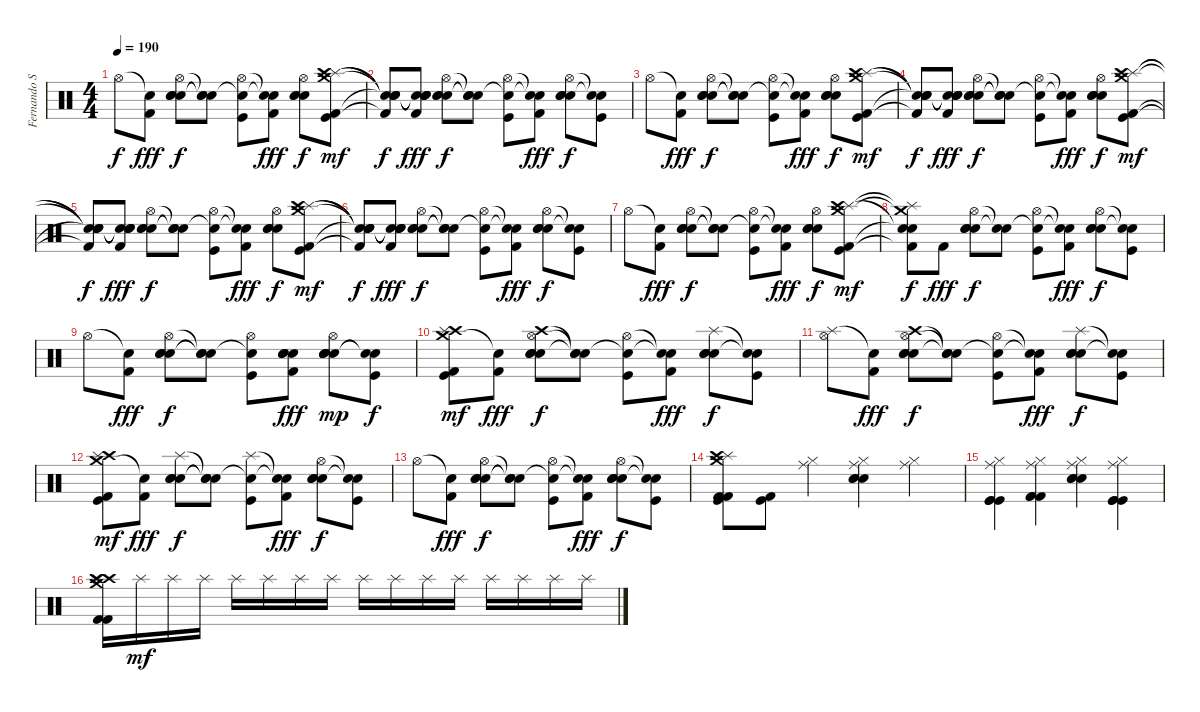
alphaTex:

\track ("Fernando Sarcella" "Fernando S") {instrument percussion}
\staff {score}
\articulation defaults
\ts (4 4)
\tempo 190
\clef neutral
\ks c "Hi-Hat (open)".8{dy f}
("Snare (hit)"{t} "Kick (hit) 2").8{dy fff} ("Hi-Hat (open)" "Electric Snare (hit)" "Electric Snare (hit)" "Electric Snare (hit)").8{dy f} ("Snare (hit)"{t} "Snare (hit)"{t} "Snare (hit)"{t}).8 ("Hi-Hat (open)" "Snare (hit)"{t} "Kick (hit)").8 ("Snare (hit)"{t} "Snare (hit)"{t} "Kick (hit) 2").8{dy fff} ("Hi-Hat (open)" "Electric Snare (hit)" "Electric Snare (hit)" "Electric Snare (hit)").8{dy f} ("Crash medium (hit)" "Splash (hit)" "Crash high (hit)" "Kick (hit) 2" "Kick (hit)").8{dy mf} |
("Snare (hit)"{t} "Snare (hit)"{t} "Snare (hit)"{t} "Snare (hit)"{t} "Kick (hit) 2"{t}).8{dy f} ("Snare (hit)"{t} "Snare (hit)"{t} "Snare (hit)"{t} "Snare (hit)"{t} "Kick (hit) 2").8{dy fff} ("Hi-Hat (open)" "Electric Snare (hit)" "Electric Snare (hit)" "Electric Snare (hit)").8{dy f} ("Snare (hit)"{t} "Snare (hit)"{t} "Snare (hit)"{t}).8 ("Hi-Hat (open)" "Snare (hit)"{t} "Kick (hit)").8 ("Snare (hit)"{t} "Snare (hit)"{t} "Kick (hit) 2").8{dy fff} ("Hi-Hat (open)" "Electric Snare (hit)" "Electric Snare (hit)" "Electric Snare (hit)").8{dy f} ("Snare (hit)"{t} "Snare (hit)"{t} "Kick (hit)").8 |
"Hi-Hat (open)".8 ("Snare (hit)"{t} "Kick (hit) 2").8{dy fff} ("Hi-Hat (open)" "Electric Snare (hit)" "Electric Snare (hit)" "Electric Snare (hit)").8{dy f} ("Snare (hit)"{t} "Snare (hit)"{t} "Snare (hit)"{t}).8 ("Hi-Hat (open)" "Snare (hit)"{t} "Kick (hit)").8 ("Snare (hit)"{t} "Snare (hit)"{t} "Kick (hit) 2").8{dy fff} ("Hi-Hat (open)" "Electric Snare (hit)" "Electric Snare (hit)" "Electric Snare (hit)").8{dy f} ("Crash medium (hit)" "Splash (hit)" "Crash high (hit)" "Kick (hit) 2" "Kick (hit)").8{dy mf} |
("Snare (hit)"{t} "Snare (hit)"{t} "Snare (hit)"{t} "Snare (hit)"{t} "Kick (hit) 2"{t}).8{dy f} ("Snare (hit)"{t} "Snare (hit)"{t} "Snare (hit)"{t} "Snare (hit)"{t} "Kick (hit) 2").8{dy fff} ("Hi-Hat (open)" "Electric Snare (hit)" "Electric Snare (hit)" "Electric Snare (hit)").8{dy f} ("Snare (hit)"{t} "Snare (hit)"{t} "Snare (hit)"{t}).8 ("Hi-Hat (open)" "Snare (hit)"{t} "Kick (hit)").8 ("Snare (hit)"{t} "Snare (hit)"{t} "Kick (hit) 2").8{dy fff} ("Hi-Hat (open)" "Electric Snare (hit)" "Electric Snare (hit)" "Electric Snare (hit)").8{dy f} ("Crash medium (hit)" "Splash (hit)" "Crash high (hit)" "Kick (hit) 2" "Kick (hit)").8{dy mf} |
("Snare (hit)"{t} "Snare (hit)"{t} "Snare (hit)"{t} "Snare (hit)"{t} "Kick (hit) 2"{t}).8{dy f} ("Snare (hit)"{t} "Snare (hit)"{t} "Snare (hit)"{t} "Snare (hit)"{t} "Kick (hit) 2").8{dy fff} ("Hi-Hat (open)" "Electric Snare (hit)" "Electric Snare (hit)" "Electric Snare (hit)").8{dy f} ("Snare (hit)"{t} "Snare (hit)"{t} "Snare (hit)"{t}).8 ("Hi-Hat (open)" "Snare (hit)"{t} "Kick (hit)").8 ("Snare (hit)"{t} "Snare (hit)"{t} "Kick (hit) 2").8{dy fff} ("Hi-Hat (open)" "Electric Snare (hit)" "Electric Snare (hit)" "Electric Snare (hit)").8{dy f} ("Crash medium (hit)" "Splash (hit)" "Crash high (hit)" "Kick (hit) 2" "Kick (hit)").8{dy mf} |
("Snare (hit)"{t} "Snare (hit)"{t} "Snare (hit)"{t} "Snare (hit)"{t} "Kick (hit) 2"{t}).8{dy f} ("Snare (hit)"{t} "Snare (hit)"{t} "Snare (hit)"{t} "Snare (hit)"{t} "Kick (hit) 2").8{dy fff} ("Hi-Hat (open)" "Electric Snare (hit)" "Electric Snare (hit)" "Electric Snare (hit)").8{dy f} ("Snare (hit)"{t} "Snare (hit)"{t} "Snare (hit)"{t}).8 ("Hi-Hat (open)" "Snare (hit)"{t} "Kick (hit)").8 ("Snare (hit)"{t} "Snare (hit)"{t} "Kick (hit) 2").8{dy fff} ("Hi-Hat (open)" "Electric Snare (hit)" "Electric Snare (hit)" "Electric Snare (hit)").8{dy f} ("Snare (hit)"{t} "Snare (hit)"{t} "Kick (hit)").8 |
"Hi-Hat (open)".8 ("Snare (hit)"{t} "Kick (hit) 2").8{dy fff} ("Hi-Hat (open)" "Electric Snare (hit)" "Electric Snare (hit)" "Electric Snare (hit)").8{dy f} ("Snare (hit)"{t} "Snare (hit)"{t} "Snare (hit)"{t}).8 ("Hi-Hat (open)" "Snare (hit)"{t} "Kick (hit)").8 ("Snare (hit)"{t} "Snare (hit)"{t} "Kick (hit) 2").8{dy fff} ("Hi-Hat (open)" "Electric Snare (hit)" "Electric Snare (hit)" "Electric Snare (hit)").8{dy f} ("Crash medium (hit)" "Splash (hit)" "Crash high (hit)" "Kick (hit) 2" "Kick (hit)").8{dy mf} |
("Crash medium (hit)"{t} "Splash (hit)"{t} "Snare (hit)"{t} "Snare (hit)"{t} "Kick (hit) 2"{t}).8{dy f} "Kick (hit) 2".8{dy fff} ("Hi-Hat (open)" "Electric Snare (hit)" "Electric Snare (hit)" "Electric Snare (hit)").8{dy f} ("Snare (hit)"{t} "Snare (hit)"{t}).8 ("Hi-Hat (open)" "Snare (hit)"{t} "Kick (hit)").8 ("Snare (hit)"{t} "Snare (hit)"{t} "Kick (hit) 2").8{dy fff} ("Hi-Hat (open)" "Electric Snare (hit)" "Electric Snare (hit)" "Electric Snare (hit)").8{dy f} ("Snare (hit)"{t} "Snare (hit)"{t} "Kick (hit)").8 |
"Hi-Hat (open)".8 ("Snare (hit)"{t} "Kick (hit) 2").8{dy fff} ("Hi-Hat (open)" "Electric Snare (hit)" "Electric Snare (hit)" "Electric Snare (hit)").8{dy f} ("Snare (hit)"{t} "Snare (hit)"{t} "Snare (hit)"{t}).8 ("Hi-Hat (open)" "Snare (hit)"{t} "Kick (hit)").8 ("Electric Snare (hit)" "Electric Snare (hit)" "Electric Snare (hit)" "Snare (hit) 2" "Kick (hit) 2").8{dy fff} ("Electric Snare (hit)" "Electric Snare (hit)" "Hi-Hat (open)" "Electric Snare (hit)" "Snare (hit) 2" "Snare (hit)").8{dy mp} ("Snare (hit)"{t} "Snare (hit)"{t} "Kick (hit)").8{dy f} |
("Crash medium (hit)" "Crash high (hit)" "Splash (hit)" "Kick (hit) 2" "Kick (hit)").8{dy mf} ("Snare (hit)"{t} "Kick (hit) 2").8{dy fff} ("Crash high (hit)" "Hi-Hat (open)" "Electric Snare (hit)" "Electric Snare (hit)" "Electric Snare (hit)").8{dy f} ("Snare (hit)"{t} "Snare (hit)"{t} "Snare (hit)"{t}).8 ("Hi-Hat (open)" "Snare (hit)"{t} "Kick (hit)").8 ("Snare (hit)"{t} "Snare (hit)"{t} "Kick (hit) 2").8{dy fff} ("Splash (hit)" "Electric Snare (hit)" "Electric Snare (hit)" "Electric Snare (hit)").8{dy f} ("Snare (hit)"{t} "Snare (hit)"{t} "Kick (hit)").8 |
("Splash (hit)" "Hi-Hat (open)").8 ("Snare (hit)"{t} "Kick (hit) 2").8{dy fff} ("Crash high (hit)" "Hi-Hat (open)" "Electric Snare (hit)" "Electric Snare (hit)" "Electric Snare (hit)").8{dy f} ("Snare (hit)"{t} "Snare (hit)"{t} "Snare (hit)"{t}).8 ("Hi-Hat (open)" "Snare (hit)"{t} "Kick (hit)").8 ("Snare (hit)"{t} "Snare (hit)"{t} "Kick (hit) 2").8{dy fff} ("Splash (hit)" "Electric Snare (hit)" "Electric Snare (hit)" "Electric Snare (hit)").8{dy f} ("Snare (hit)"{t} "Snare (hit)"{t} "Kick (hit)").8 |
("Crash medium (hit)" "Crash high (hit)" "Splash (hit)" "Kick (hit) 2" "Kick (hit)").8{dy mf} ("Snare (hit)"{t} "Kick (hit) 2").8{dy fff} ("Splash (hit)" "Electric Snare (hit)" "Electric Snare (hit)" "Electric Snare (hit)").8{dy f} ("Snare (hit)"{t} "Snare (hit)"{t} "Snare (hit)"{t}).8 ("Splash (hit)" "Snare (hit)"{t} "Kick (hit)").8 ("Snare (hit)"{t} "Snare (hit)"{t} "Kick (hit) 2").8{dy fff} ("Hi-Hat (open)" "Electric Snare (hit)" "Electric Snare (hit)" "Electric Snare (hit)").8{dy f} ("Snare (hit)"{t} "Snare (hit)"{t} "Kick (hit)").8 |
"Hi-Hat (open)".8 ("Snare (hit)"{t} "Kick (hit) 2").8{dy fff} ("Hi-Hat (open)" "Electric Snare (hit)" "Electric Snare (hit)" "Electric Snare (hit)").8{dy f} ("Snare (hit)"{t} "Snare (hit)"{t} "Snare (hit)"{t}).8 ("Hi-Hat (open)" "Snare (hit)"{t} "Kick (hit)").8 ("Snare (hit)"{t} "Snare (hit)"{t} "Kick (hit) 2").8{dy fff} ("Hi-Hat (open)" "Electric Snare (hit)" "Electric Snare (hit)" "Electric Snare (hit)").8{dy f} ("Snare (hit)"{t} "Snare (hit)"{t} "Kick (hit)").8 |
("Crash medium (hit)" "Splash (hit)" "Crash high (hit)" "Kick (hit)" "Kick (hit) 2" "Kick (hit) 2").8 ("Kick (hit)" "Kick (hit) 2").8 ("Ride (middle)" "Hi-Hat (closed)").4 ("Ride (middle)" "Hi-Hat (closed)" "Electric Snare (hit)" "Electric Snare (hit)" "Electric Snare (hit)").4 ("Ride (middle)" "Hi-Hat (closed)").4 |
("Hi-Hat (closed)" "Ride (middle)" "Kick (hit)" "Kick (hit)" "Kick (hit)").4 ("Hi-Hat (closed)" "Ride (middle)" "Kick (hit) 2" "Kick (hit) 2" "Kick (hit) 2").4 ("Ride (middle)" "Hi-Hat (closed)" "Electric Snare (hit)" "Electric Snare (hit)" "Electric Snare (hit)").4 ("Hi-Hat (closed)" "Ride (middle)" "Kick (hit)" "Kick (hit)" "Kick (hit)").4 |
("Crash medium (hit)" "Crash high (hit)" "Crash high (hit)" "Splash (hit)" "Kick (hit) 2" "Kick (hit) 2").16 "Splash (hit)".16{dy mf} "Splash (hit)".16 "Splash (hit)".16 "Splash (hit)".16 "Splash (hit)".16 "Splash (hit)".16 "Splash (hit)".16 "Splash (hit)".16 "Splash (hit)".16 "Splash (hit)".16 "Splash (hit)".16 "Splash (hit)".16 "Splash (hit)".16 "Splash (hit)".16 "Splash (hit)".16
